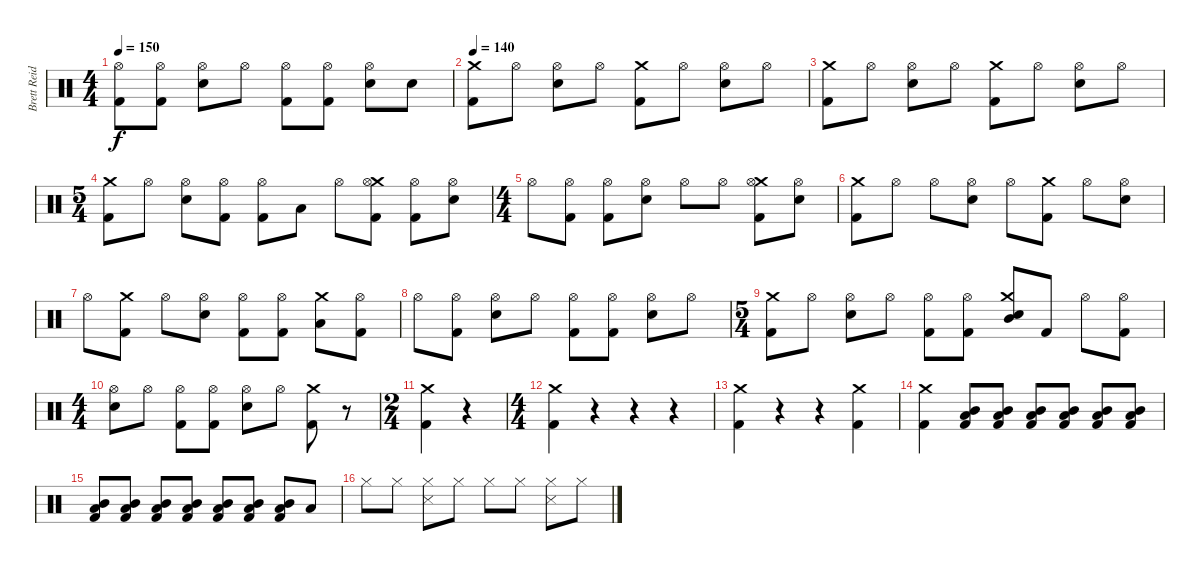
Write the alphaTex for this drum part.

\track ("Brett Reid" "Brett Reid") {instrument percussion}
\staff {score}
\articulation defaults
\ts (4 4)
\tempo 150
\clef neutral
\ks c
("Hi-Hat (open)" "Kick (hit) 2").8{dy f} ("Hi-Hat (open)" "Kick (hit) 2").8 ("Hi-Hat (open)" "Snare (hit) 2").8 "Hi-Hat (open)".8 ("Hi-Hat (open)" "Kick (hit) 2").8 ("Hi-Hat (open)" "Kick (hit) 2").8 ("Hi-Hat (open)" "Snare (hit) 2").8 "Snare (hit) 2".8 |
\tempo 140
("Crash medium (hit)" "Kick (hit) 2").8 "Hi-Hat (open)".8 ("Hi-Hat (open)" "Snare (hit) 2").8 "Hi-Hat (open)".8 ("Crash medium (hit)" "Kick (hit) 2").8 "Hi-Hat (open)".8 ("Hi-Hat (open)" "Snare (hit) 2").8 "Hi-Hat (open)".8 |
("Crash medium (hit)" "Kick (hit) 2").8 "Hi-Hat (open)".8 ("Hi-Hat (open)" "Snare (hit) 2").8 "Hi-Hat (open)".8 ("Crash medium (hit)" "Kick (hit) 2").8 "Hi-Hat (open)".8 ("Hi-Hat (open)" "Snare (hit) 2").8 "Hi-Hat (open)".8 |
\ts (5 4)
("Crash medium (hit)" "Kick (hit) 2").8 "Hi-Hat (open)".8 ("Hi-Hat (open)" "Snare (hit) 2").8 ("Hi-Hat (open)" "Kick (hit) 2").8 ("Hi-Hat (open)" "Kick (hit) 2").8 "Low Floor Tom (hit)".8 "Hi-Hat (open)".8 ("Crash medium (hit)" "Hi-Hat (open)" "Kick (hit) 2").8 ("Hi-Hat (open)" "Kick (hit) 2").8 ("Hi-Hat (open)" "Snare (hit) 2").8 |
\ts (4 4)
"Hi-Hat (open)".8 ("Hi-Hat (open)" "Kick (hit) 2").8 ("Hi-Hat (open)" "Kick (hit) 2").8 ("Hi-Hat (open)" "Snare (hit) 2").8 "Hi-Hat (open)".8 "Hi-Hat (open)".8 ("Crash medium (hit)" "Hi-Hat (open)" "Kick (hit) 2").8 ("Hi-Hat (open)" "Snare (hit) 2").8 |
("Crash medium (hit)" "Kick (hit) 2").8 "Hi-Hat (open)".8 "Hi-Hat (open)".8 ("Hi-Hat (open)" "Snare (hit) 2").8 "Hi-Hat (open)".8 ("Crash medium (hit)" "Kick (hit) 2").8 "Hi-Hat (open)".8 ("Hi-Hat (open)" "Snare (hit) 2").8 |
"Hi-Hat (open)".8 ("Crash medium (hit)" "Kick (hit) 2").8 "Hi-Hat (open)".8 ("Hi-Hat (open)" "Snare (hit) 2").8 ("Hi-Hat (open)" "Kick (hit) 2").8 ("Hi-Hat (open)" "Kick (hit) 2").8 ("Crash medium (hit)" "Low Floor Tom (hit)").8 ("Hi-Hat (open)" "Kick (hit) 2").8 |
"Hi-Hat (open)".8 ("Hi-Hat (open)" "Kick (hit) 2").8 ("Hi-Hat (open)" "Snare (hit) 2").8 "Hi-Hat (open)".8 ("Hi-Hat (open)" "Kick (hit) 2").8 ("Hi-Hat (open)" "Kick (hit) 2").8 ("Hi-Hat (open)" "Snare (hit) 2").8 "Hi-Hat (open)".8 |
\ts (5 4)
("Crash medium (hit)" "Kick (hit) 2").8 "Hi-Hat (open)".8 ("Hi-Hat (open)" "Snare (hit) 2").8 "Hi-Hat (open)".8 ("Hi-Hat (open)" "Kick (hit) 2").8 ("Hi-Hat (open)" "Kick (hit) 2").8 ("Crash medium (hit)" "Snare (hit) 2" "Mid Tom (hit)").8 "Kick (hit) 2".8 "Hi-Hat (open)".8 ("Hi-Hat (open)" "Kick (hit) 2").8 |
\ts (4 4)
("Hi-Hat (open)" "Snare (hit) 2").8 "Hi-Hat (open)".8 ("Hi-Hat (open)" "Kick (hit) 2").8 ("Hi-Hat (open)" "Kick (hit) 2").8 ("Hi-Hat (open)" "Snare (hit) 2").8 "Hi-Hat (open)".8 ("Crash medium (hit)" "Kick (hit) 2").8 r.8 |
\ts (2 4)
("Crash medium (hit)" "Kick (hit) 2").4 r.4 |
\ts (4 4)
("Crash medium (hit)" "Kick (hit) 2").4 r.4 r.4 r.4 |
("Crash medium (hit)" "Kick (hit) 2").4 r.4 r.4 ("Crash medium (hit)" "Kick (hit) 2").4 |
("Crash medium (hit)" "Kick (hit) 2").4 ("Mid Tom (hit)" "Low Floor Tom (hit)" "Kick (hit) 2").8 ("Mid Tom (hit)" "Low Floor Tom (hit)" "Kick (hit) 2").8 ("Mid Tom (hit)" "Low Floor Tom (hit)" "Kick (hit) 2").8 ("Mid Tom (hit)" "Low Floor Tom (hit)" "Kick (hit) 2").8 ("Mid Tom (hit)" "Low Floor Tom (hit)" "Kick (hit) 2").8 ("Mid Tom (hit)" "Low Floor Tom (hit)" "Kick (hit) 2").8 |
("Mid Tom (hit)" "Low Floor Tom (hit)" "Kick (hit) 2").8 ("Mid Tom (hit)" "Low Floor Tom (hit)" "Kick (hit) 2").8 ("Mid Tom (hit)" "Low Floor Tom (hit)" "Kick (hit) 2").8 ("Mid Tom (hit)" "Low Floor Tom (hit)" "Kick (hit) 2").8 ("Mid Tom (hit)" "Low Floor Tom (hit)" "Kick (hit) 2").8 ("Mid Tom (hit)" "Low Floor Tom (hit)" "Kick (hit) 2").8 ("Mid Tom (hit)" "Low Floor Tom (hit)" "Kick (hit) 2").8 "Low Floor Tom (hit)".8 |
"Hi-Hat (closed)".8 "Hi-Hat (closed)".8 ("Snare (side stick) 3" "Hi-Hat (closed)").8 "Hi-Hat (closed)".8 "Hi-Hat (closed)".8 "Hi-Hat (closed)".8 ("Snare (side stick) 3" "Hi-Hat (closed)").8 "Hi-Hat (closed)".8
